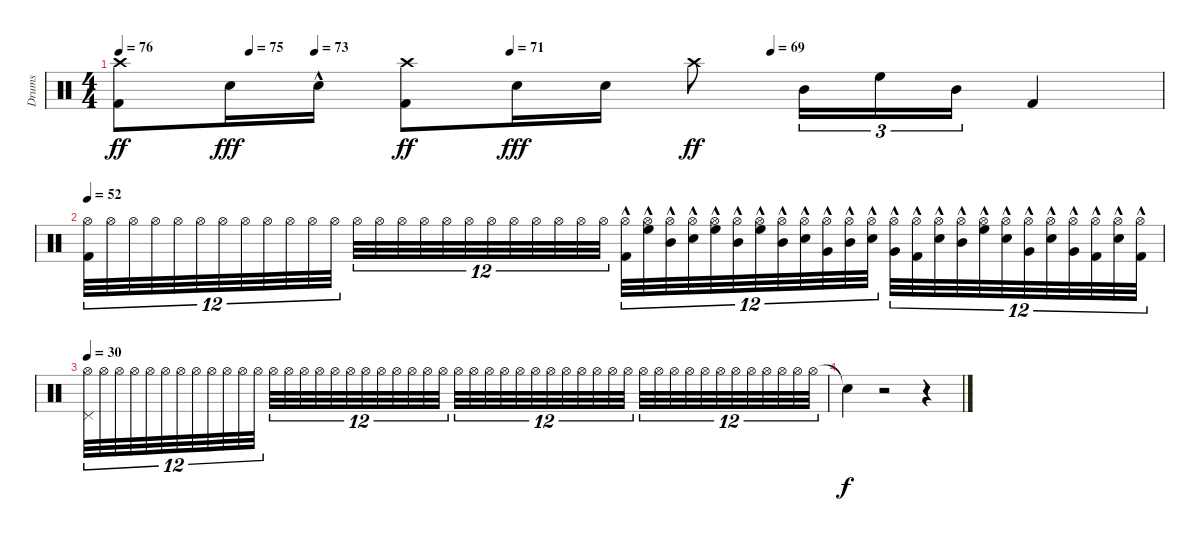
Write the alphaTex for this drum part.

\track ("Drums" "Drums") {instrument percussion}
\staff {score}
\articulation defaults
\ts (4 4)
\tempo 76
\tempo (75 0.125)
\tempo (73 0.1875)
\tempo (71 0.375)
\tempo (69 0.625)
\clef neutral
\ks c
("Kick (hit) 2" "Crash high (hit)").8{dy ff volume 8} "Snare (hit) 2".16{dy fff volume 9} "Snare (hit) 2"{hac}.16{volume 10} ("Kick (hit) 2" "Crash high (hit)").8{dy ff volume 11} "Snare (hit) 2".16{dy fff volume 12} "Snare (hit) 2".16{volume 13} "Crash high (hit)".8{dy ff volume 14} "Mid Tom (hit)".16{tu (3 2)} "High Floor Tom (hit)".16{tu (3 2)} "Mid Tom (hit)".16{tu (3 2)} "Kick (hit) 2".4 |
\tempo 52
("Kick (hit) 2" "Hi-Hat (open)").32{tu (12 8)} "Hi-Hat (open)".32{tu (12 8)} "Hi-Hat (open)".32{tu (12 8)} "Hi-Hat (open)".32{tu (12 8)} "Hi-Hat (open)".32{tu (12 8)} "Hi-Hat (open)".32{tu (12 8)} "Hi-Hat (open)".32{tu (12 8)} "Hi-Hat (open)".32{tu (12 8)} "Hi-Hat (open)".32{tu (12 8)} "Hi-Hat (open)".32{tu (12 8)} "Hi-Hat (open)".32{tu (12 8)} "Hi-Hat (open)".32{tu (12 8)} "Hi-Hat (open)".32{tu (12 8)} "Hi-Hat (open)".32{tu (12 8)} "Hi-Hat (open)".32{tu (12 8)} "Hi-Hat (open)".32{tu (12 8)} "Hi-Hat (open)".32{tu (12 8)} "Hi-Hat (open)".32{tu (12 8)} "Hi-Hat (open)".32{tu (12 8)} "Hi-Hat (open)".32{tu (12 8)} "Hi-Hat (open)".32{tu (12 8)} "Hi-Hat (open)".32{tu (12 8)} "Hi-Hat (open)".32{tu (12 8)} "Hi-Hat (open)".32{tu (12 8)} ("Kick (hit) 2"{hac} "Hi-Hat (open)").32{tu (12 8)} ("Hi-Hat (open)" "High Floor Tom (hit)"{hac}).32{tu (12 8)} ("Hi-Hat (open)" "Mid Tom (hit)"{hac}).32{tu (12 8)} ("Snare (hit) 2"{hac} "Hi-Hat (open)").32{tu (12 8)} ("Hi-Hat (open)" "High Floor Tom (hit)"{hac}).32{tu (12 8)} ("Hi-Hat (open)" "Mid Tom (hit)"{hac}).32{tu (12 8)} ("Hi-Hat (open)" "High Floor Tom (hit)"{hac}).32{tu (12 8)} ("Hi-Hat (open)" "Mid Tom (hit)"{hac}).32{tu (12 8)} ("Snare (hit) 2"{hac} "Hi-Hat (open)").32{tu (12 8)} ("Very Low Tom (hit)"{hac} "Hi-Hat (open)").32{tu (12 8)} ("Hi-Hat (open)" "Mid Tom (hit)"{hac}).32{tu (12 8)} ("Snare (hit) 2"{hac} "Hi-Hat (open)").32{tu (12 8)} ("Very Low Tom (hit)"{hac} "Hi-Hat (open)").32{tu (12 8)} ("Kick (hit) 2"{hac} "Hi-Hat (open)").32{tu (12 8)} ("Snare (hit) 2"{hac} "Hi-Hat (open)").32{tu (12 8)} ("Hi-Hat (open)" "Mid Tom (hit)"{hac}).32{tu (12 8)} ("Hi-Hat (open)" "High Floor Tom (hit)"{hac}).32{tu (12 8)} ("Snare (hit) 2"{hac} "Hi-Hat (open)").32{tu (12 8)} ("Very Low Tom (hit)"{hac} "Hi-Hat (open)").32{tu (12 8)} ("Snare (hit) 2"{hac} "Hi-Hat (open)").32{tu (12 8)} ("Very Low Tom (hit)"{hac} "Hi-Hat (open)").32{tu (12 8)} ("Kick (hit) 2"{hac} "Hi-Hat (open)").32{tu (12 8)} ("Snare (hit) 2"{hac} "Hi-Hat (open)").32{tu (12 8)} ("Kick (hit) 2"{hac} "Hi-Hat (open)").32{tu (12 8)} |
\tempo 30
("Pedal Hi-Hat (hit)" "Hi-Hat (open)").32{tu (12 8)} "Hi-Hat (open)".32{tu (12 8)} "Hi-Hat (open)".32{tu (12 8)} "Hi-Hat (open)".32{tu (12 8)} "Hi-Hat (open)".32{tu (12 8)} "Hi-Hat (open)".32{tu (12 8)} "Hi-Hat (open)".32{tu (12 8)} "Hi-Hat (open)".32{tu (12 8)} "Hi-Hat (open)".32{tu (12 8)} "Hi-Hat (open)".32{tu (12 8)} "Hi-Hat (open)".32{tu (12 8)} "Hi-Hat (open)".32{tu (12 8)} "Hi-Hat (open)".32{tu (12 8)} "Hi-Hat (open)".32{tu (12 8)} "Hi-Hat (open)".32{tu (12 8)} "Hi-Hat (open)".32{tu (12 8)} "Hi-Hat (open)".32{tu (12 8)} "Hi-Hat (open)".32{tu (12 8)} "Hi-Hat (open)".32{tu (12 8)} "Hi-Hat (open)".32{tu (12 8)} "Hi-Hat (open)".32{tu (12 8)} "Hi-Hat (open)".32{tu (12 8)} "Hi-Hat (open)".32{tu (12 8)} "Hi-Hat (open)".32{tu (12 8)} "Hi-Hat (open)".32{tu (12 8)} "Hi-Hat (open)".32{tu (12 8)} "Hi-Hat (open)".32{tu (12 8)} "Hi-Hat (open)".32{tu (12 8)} "Hi-Hat (open)".32{tu (12 8)} "Hi-Hat (open)".32{tu (12 8)} "Hi-Hat (open)".32{tu (12 8)} "Hi-Hat (open)".32{tu (12 8)} "Hi-Hat (open)".32{tu (12 8)} "Hi-Hat (open)".32{tu (12 8)} "Hi-Hat (open)".32{tu (12 8)} "Hi-Hat (open)".32{tu (12 8)} "Hi-Hat (open)".32{tu (12 8)} "Hi-Hat (open)".32{tu (12 8)} "Hi-Hat (open)".32{tu (12 8)} "Hi-Hat (open)".32{tu (12 8)} "Hi-Hat (open)".32{tu (12 8)} "Hi-Hat (open)".32{tu (12 8)} "Hi-Hat (open)".32{tu (12 8)} "Hi-Hat (open)".32{tu (12 8)} "Hi-Hat (open)".32{tu (12 8)} "Hi-Hat (open)".32{tu (12 8)} "Hi-Hat (open)".32{tu (12 8)} "Hi-Hat (open)".32{tu (12 8)} |
"Snare (hit)"{t}.4{dy f} r.2 r.4
